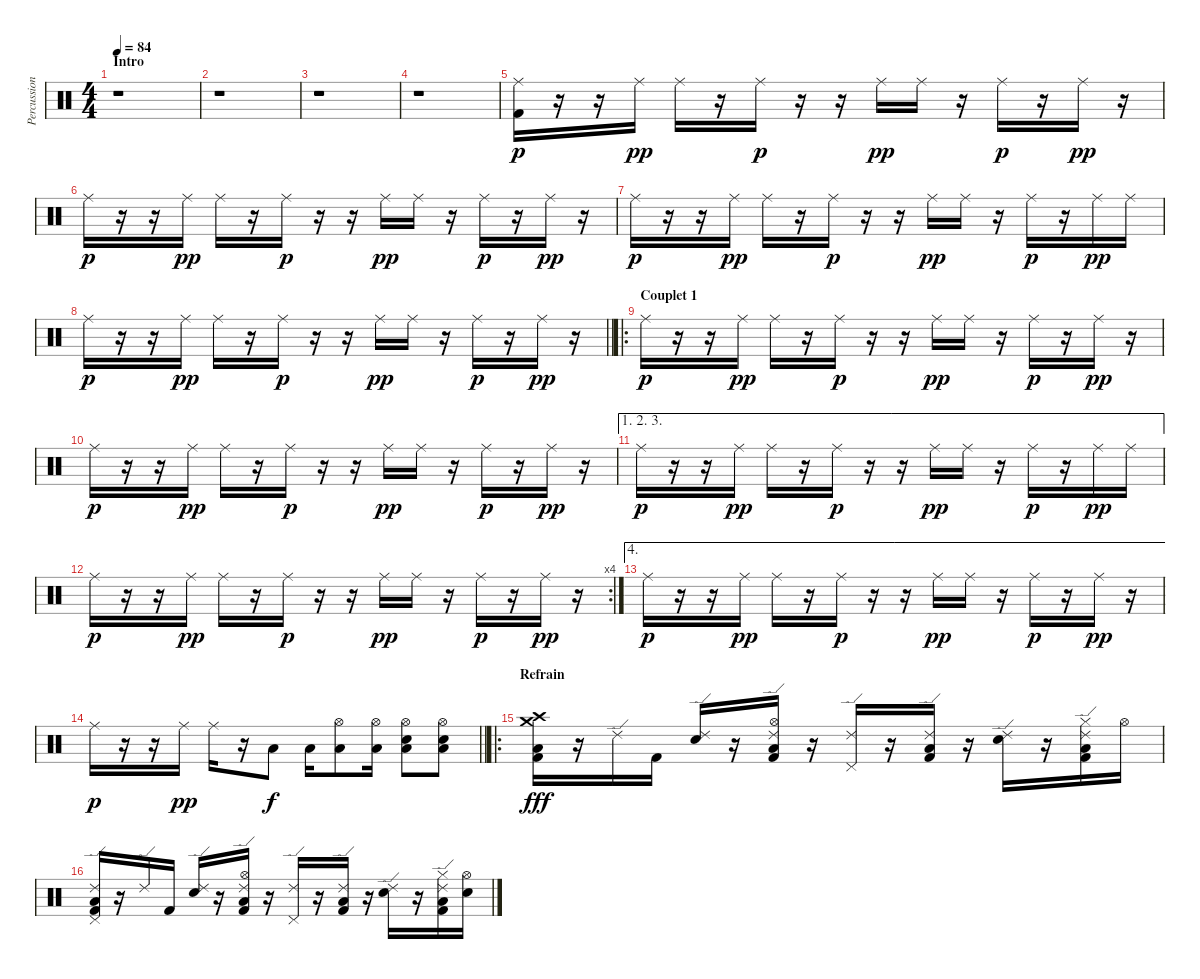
\track ("Percussions" "Percussion") {instrument percussion}
\staff {score}
\articulation defaults
\ts (4 4)
\section ("" "Intro")
\tempo 84
\clef neutral
\ks c
r.1{dy p} |
r.1 |
r.1 |
r.1 |
("Ride (middle)" "Kick (hit) 2").16 r.16 r.16 "Ride (middle)".16{dy pp} "Ride (middle)".16 r.16 "Ride (middle)".16{dy p} r.16 r.16 "Ride (middle)".16{dy pp} "Ride (middle)".16 r.16 "Ride (middle)".16{dy p} r.16 "Ride (middle)".16{dy pp} r.16 |
"Ride (middle)".16{dy p} r.16 r.16 "Ride (middle)".16{dy pp} "Ride (middle)".16 r.16 "Ride (middle)".16{dy p} r.16 r.16 "Ride (middle)".16{dy pp} "Ride (middle)".16 r.16 "Ride (middle)".16{dy p} r.16 "Ride (middle)".16{dy pp} r.16 |
"Ride (middle)".16{dy p} r.16 r.16 "Ride (middle)".16{dy pp} "Ride (middle)".16 r.16 "Ride (middle)".16{dy p} r.16 r.16 "Ride (middle)".16{dy pp} "Ride (middle)".16 r.16 "Ride (middle)".16{dy p} r.16 "Ride (middle)".16{dy pp} "Ride (middle)".16 |
\barLineRight lightlight "Ride (middle)".16{dy p}
r.16 r.16 "Ride (middle)".16{dy pp} "Ride (middle)".16 r.16 "Ride (middle)".16{dy p} r.16 r.16 "Ride (middle)".16{dy pp} "Ride (middle)".16 r.16 "Ride (middle)".16{dy p} r.16 "Ride (middle)".16{dy pp} r.16 |
\ro
\section ("" "Couplet 1")
"Ride (middle)".16{dy p} r.16 r.16 "Ride (middle)".16{dy pp} "Ride (middle)".16 r.16 "Ride (middle)".16{dy p} r.16 r.16 "Ride (middle)".16{dy pp} "Ride (middle)".16 r.16 "Ride (middle)".16{dy p} r.16 "Ride (middle)".16{dy pp} r.16 |
"Ride (middle)".16{dy p} r.16 r.16 "Ride (middle)".16{dy pp} "Ride (middle)".16 r.16 "Ride (middle)".16{dy p} r.16 r.16 "Ride (middle)".16{dy pp} "Ride (middle)".16 r.16 "Ride (middle)".16{dy p} r.16 "Ride (middle)".16{dy pp} r.16 |
\ae (1 2 3)
"Ride (middle)".16{dy p} r.16 r.16 "Ride (middle)".16{dy pp} "Ride (middle)".16 r.16 "Ride (middle)".16{dy p} r.16 r.16 "Ride (middle)".16{dy pp} "Ride (middle)".16 r.16 "Ride (middle)".16{dy p} r.16 "Ride (middle)".16{dy pp} "Ride (middle)".16 |
\rc 4 "Ride (middle)".16{dy p}
r.16 r.16 "Ride (middle)".16{dy pp} "Ride (middle)".16 r.16 "Ride (middle)".16{dy p} r.16 r.16 "Ride (middle)".16{dy pp} "Ride (middle)".16 r.16 "Ride (middle)".16{dy p} r.16 "Ride (middle)".16{dy pp} r.16 |
\ae 4 "Ride (middle)".16{dy p}
r.16 r.16 "Ride (middle)".16{dy pp} "Ride (middle)".16 r.16 "Ride (middle)".16{dy p} r.16 r.16 "Ride (middle)".16{dy pp} "Ride (middle)".16 r.16 "Ride (middle)".16{dy p} r.16 "Ride (middle)".16{dy pp} r.16 |
\barLineRight lightlight "Ride (middle)".16{dy p}
r.16 r.16 "Ride (middle)".16{dy pp} "Ride (middle)".16 r.16 "Low Floor Tom (hit)".8{dy f} "Low Floor Tom (hit)".16 ("Hi-Hat (open)" "Low Floor Tom (hit)").8 ("Hi-Hat (open)" "Low Floor Tom (hit)").16 ("Electric Snare (hit)" "Hi-Hat (open)" "Low Floor Tom (hit)").8 ("Electric Snare (hit)" "Hi-Hat (open)" "Low Floor Tom (hit)").8 |
\ro
\section ("" "Refrain")
("Crash medium (hit)" "Crash high (hit)" "Low Floor Tom (hit)" "Kick (hit) 2").16{dy fff volume 16} r.16 "Ride (edge) 2".16 "Kick (hit) 2".16 ("Ride (edge) 2" "Electric Snare (hit)").16 r.16 ("Ride (edge) 2" "Hi-Hat (open)" "Low Floor Tom (hit)" "Kick (hit) 2").16 r.16 ("Ride (edge) 2" "Pedal Hi-Hat (hit)").16 r.16 ("Ride (edge) 2" "Low Floor Tom (hit)" "Kick (hit) 2").16 r.16 ("Ride (edge) 2" "Electric Snare (hit)").16 r.16 ("Ride (edge) 2" "Hi-Hat (closed)" "Low Floor Tom (hit)" "Kick (hit) 2").16 "Hi-Hat (open)".16 |
("Ride (edge) 2" "Pedal Hi-Hat (hit)" "Low Floor Tom (hit)" "Kick (hit) 2").16 r.16 "Ride (edge) 2".16 "Kick (hit) 2".16 ("Ride (edge) 2" "Electric Snare (hit)").16 r.16 ("Ride (edge) 2" "Hi-Hat (open)" "Low Floor Tom (hit)" "Kick (hit) 2").16 r.16 ("Ride (edge) 2" "Pedal Hi-Hat (hit)").16 r.16 ("Ride (edge) 2" "Low Floor Tom (hit)" "Kick (hit) 2").16 r.16 ("Ride (edge) 2" "Electric Snare (hit)").16 r.16 ("Ride (edge) 2" "Hi-Hat (closed)" "Low Floor Tom (hit)" "Kick (hit) 2").16 ("Hi-Hat (open)" "Electric Snare (hit)").16
